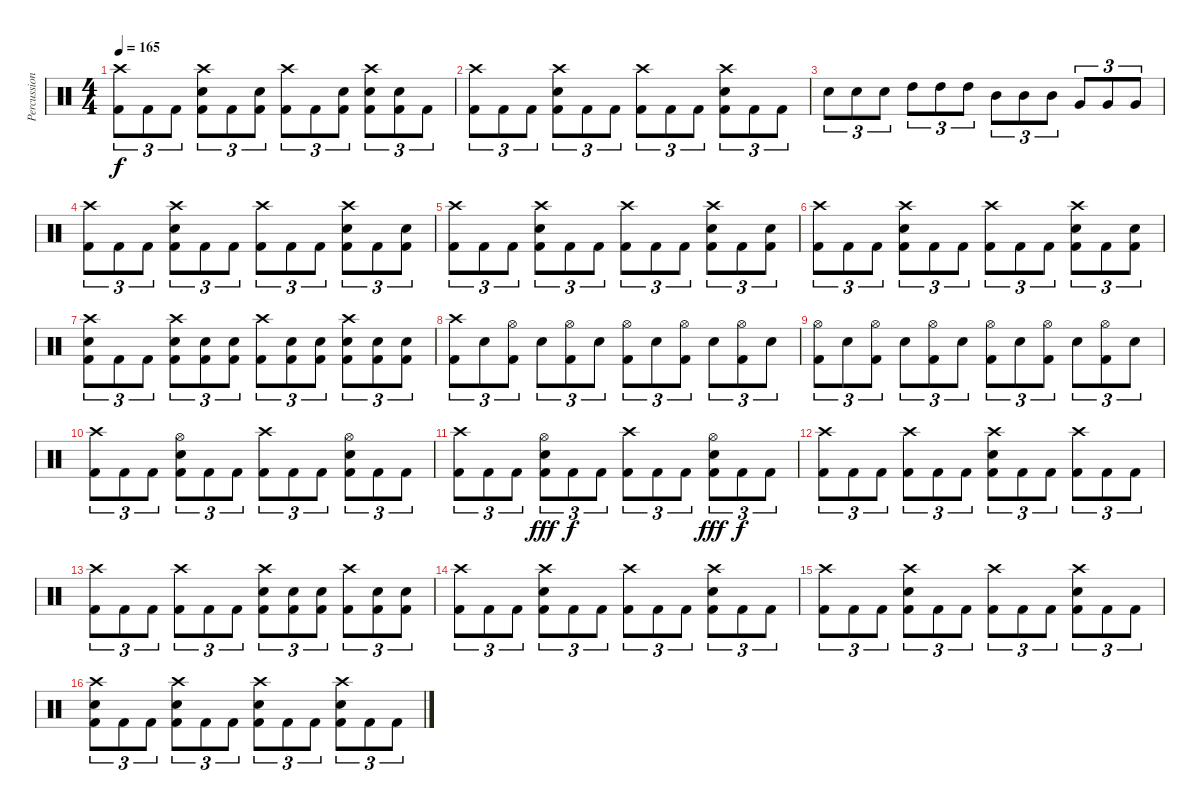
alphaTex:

\track ("Percussion" "Percussion") {instrument percussion}
\staff {score}
\articulation defaults
\ts (4 4)
\tempo 165
\clef neutral
\ks c
("Crash high (hit)" "Kick (hit) 2").8{tu (3 2) dy f} "Kick (hit) 2".8{tu (3 2)} "Kick (hit) 2".8{tu (3 2)} ("Crash high (hit)" "Electric Snare (hit)" "Kick (hit) 2").8{tu (3 2)} "Kick (hit) 2".8{tu (3 2)} ("Electric Snare (hit)" "Kick (hit) 2").8{tu (3 2)} ("Crash high (hit)" "Kick (hit) 2").8{tu (3 2)} "Kick (hit) 2".8{tu (3 2)} ("Electric Snare (hit)" "Kick (hit) 2").8{tu (3 2)} ("Crash high (hit)" "Electric Snare (hit)" "Kick (hit) 2").8{tu (3 2)} ("Electric Snare (hit)" "Kick (hit) 2").8{tu (3 2)} "Kick (hit) 2".8{tu (3 2)} |
("Crash high (hit)" "Kick (hit) 2").8{tu (3 2)} "Kick (hit) 2".8{tu (3 2)} "Kick (hit) 2".8{tu (3 2)} ("Crash high (hit)" "Electric Snare (hit)" "Kick (hit) 2").8{tu (3 2)} "Kick (hit) 2".8{tu (3 2)} "Kick (hit) 2".8{tu (3 2)} ("Crash high (hit)" "Kick (hit) 2").8{tu (3 2)} "Kick (hit) 2".8{tu (3 2)} "Kick (hit) 2".8{tu (3 2)} ("Crash high (hit)" "Electric Snare (hit)" "Kick (hit) 2").8{tu (3 2)} "Kick (hit) 2".8{tu (3 2)} "Kick (hit) 2".8{tu (3 2)} |
"Electric Snare (hit)".8{tu (3 2)} "Electric Snare (hit)".8{tu (3 2)} "Electric Snare (hit)".8{tu (3 2)} "High Tom (hit)".8{tu (3 2)} "High Tom (hit)".8{tu (3 2)} "High Tom (hit)".8{tu (3 2)} "Mid Tom (hit)".8{tu (3 2)} "Mid Tom (hit)".8{tu (3 2)} "Mid Tom (hit)".8{tu (3 2)} "Very Low Tom (hit)".8{tu (3 2)} "Very Low Tom (hit)".8{tu (3 2)} "Very Low Tom (hit)".8{tu (3 2)} |
("Crash high (hit)" "Kick (hit) 2").8{tu (3 2)} "Kick (hit) 2".8{tu (3 2)} "Kick (hit) 2".8{tu (3 2)} ("Crash high (hit)" "Electric Snare (hit)" "Kick (hit) 2").8{tu (3 2)} "Kick (hit) 2".8{tu (3 2)} "Kick (hit) 2".8{tu (3 2)} ("Crash high (hit)" "Kick (hit) 2").8{tu (3 2)} "Kick (hit) 2".8{tu (3 2)} "Kick (hit) 2".8{tu (3 2)} ("Crash high (hit)" "Electric Snare (hit)" "Kick (hit) 2").8{tu (3 2)} "Kick (hit) 2".8{tu (3 2)} ("Electric Snare (hit)" "Kick (hit) 2").8{tu (3 2)} |
("Crash high (hit)" "Kick (hit) 2").8{tu (3 2)} "Kick (hit) 2".8{tu (3 2)} "Kick (hit) 2".8{tu (3 2)} ("Crash high (hit)" "Electric Snare (hit)" "Kick (hit) 2").8{tu (3 2)} "Kick (hit) 2".8{tu (3 2)} "Kick (hit) 2".8{tu (3 2)} ("Crash high (hit)" "Kick (hit) 2").8{tu (3 2)} "Kick (hit) 2".8{tu (3 2)} "Kick (hit) 2".8{tu (3 2)} ("Crash high (hit)" "Electric Snare (hit)" "Kick (hit) 2").8{tu (3 2)} "Kick (hit) 2".8{tu (3 2)} ("Electric Snare (hit)" "Kick (hit) 2").8{tu (3 2)} |
("Crash high (hit)" "Kick (hit) 2").8{tu (3 2)} "Kick (hit) 2".8{tu (3 2)} "Kick (hit) 2".8{tu (3 2)} ("Crash high (hit)" "Electric Snare (hit)" "Kick (hit) 2").8{tu (3 2)} "Kick (hit) 2".8{tu (3 2)} "Kick (hit) 2".8{tu (3 2)} ("Crash high (hit)" "Kick (hit) 2").8{tu (3 2)} "Kick (hit) 2".8{tu (3 2)} "Kick (hit) 2".8{tu (3 2)} ("Crash high (hit)" "Electric Snare (hit)" "Kick (hit) 2").8{tu (3 2)} "Kick (hit) 2".8{tu (3 2)} ("Electric Snare (hit)" "Kick (hit) 2").8{tu (3 2)} |
("Crash high (hit)" "Electric Snare (hit)" "Kick (hit) 2").8{tu (3 2)} "Kick (hit) 2".8{tu (3 2)} "Kick (hit) 2".8{tu (3 2)} ("Crash high (hit)" "Electric Snare (hit)" "Kick (hit) 2").8{tu (3 2)} ("Electric Snare (hit)" "Kick (hit) 2").8{tu (3 2)} ("Electric Snare (hit)" "Kick (hit) 2").8{tu (3 2)} ("Crash high (hit)" "Kick (hit) 2").8{tu (3 2)} ("Electric Snare (hit)" "Kick (hit) 2").8{tu (3 2)} ("Electric Snare (hit)" "Kick (hit) 2").8{tu (3 2)} ("Crash high (hit)" "Electric Snare (hit)" "Kick (hit) 2").8{tu (3 2)} ("Electric Snare (hit)" "Kick (hit) 2").8{tu (3 2)} ("Electric Snare (hit)" "Kick (hit) 2").8{tu (3 2)} |
("Crash high (hit)" "Kick (hit) 2").8{tu (3 2)} "Electric Snare (hit)".8{tu (3 2)} ("Hi-Hat (open)" "Kick (hit) 2").8{tu (3 2)} "Electric Snare (hit)".8{tu (3 2)} ("Hi-Hat (open)" "Kick (hit) 2").8{tu (3 2)} "Electric Snare (hit)".8{tu (3 2)} ("Hi-Hat (open)" "Kick (hit) 2").8{tu (3 2)} "Electric Snare (hit)".8{tu (3 2)} ("Hi-Hat (open)" "Kick (hit) 2").8{tu (3 2)} "Electric Snare (hit)".8{tu (3 2)} ("Hi-Hat (open)" "Kick (hit) 2").8{tu (3 2)} "Electric Snare (hit)".8{tu (3 2)} |
("Hi-Hat (open)" "Kick (hit) 2").8{tu (3 2)} "Electric Snare (hit)".8{tu (3 2)} ("Hi-Hat (open)" "Kick (hit) 2").8{tu (3 2)} "Electric Snare (hit)".8{tu (3 2)} ("Hi-Hat (open)" "Kick (hit) 2").8{tu (3 2)} "Electric Snare (hit)".8{tu (3 2)} ("Hi-Hat (open)" "Kick (hit) 2").8{tu (3 2)} "Electric Snare (hit)".8{tu (3 2)} ("Hi-Hat (open)" "Kick (hit) 2").8{tu (3 2)} "Electric Snare (hit)".8{tu (3 2)} ("Hi-Hat (open)" "Kick (hit) 2").8{tu (3 2)} "Electric Snare (hit)".8{tu (3 2)} |
("Crash high (hit)" "Kick (hit) 2").8{tu (3 2)} "Kick (hit) 2".8{tu (3 2)} "Kick (hit) 2".8{tu (3 2)} ("Hi-Hat (open)" "Electric Snare (hit)" "Kick (hit) 2").8{tu (3 2)} "Kick (hit) 2".8{tu (3 2)} "Kick (hit) 2".8{tu (3 2)} ("Crash high (hit)" "Kick (hit) 2").8{tu (3 2)} "Kick (hit) 2".8{tu (3 2)} "Kick (hit) 2".8{tu (3 2)} ("Hi-Hat (open)" "Electric Snare (hit)" "Kick (hit) 2").8{tu (3 2)} "Kick (hit) 2".8{tu (3 2)} "Kick (hit) 2".8{tu (3 2)} |
("Crash high (hit)" "Kick (hit) 2").8{tu (3 2)} "Kick (hit) 2".8{tu (3 2)} "Kick (hit) 2".8{tu (3 2)} ("Hi-Hat (open)" "Electric Snare (hit)" "Kick (hit) 2").8{tu (3 2) dy fff} "Kick (hit) 2".8{tu (3 2) dy f} "Kick (hit) 2".8{tu (3 2)} ("Crash high (hit)" "Kick (hit) 2").8{tu (3 2)} "Kick (hit) 2".8{tu (3 2)} "Kick (hit) 2".8{tu (3 2)} ("Hi-Hat (open)" "Electric Snare (hit)" "Kick (hit) 2").8{tu (3 2) dy fff} "Kick (hit) 2".8{tu (3 2) dy f} "Kick (hit) 2".8{tu (3 2)} |
("Crash high (hit)" "Kick (hit) 2").8{tu (3 2)} "Kick (hit) 2".8{tu (3 2)} "Kick (hit) 2".8{tu (3 2)} ("Crash high (hit)" "Kick (hit) 2").8{tu (3 2)} "Kick (hit) 2".8{tu (3 2)} "Kick (hit) 2".8{tu (3 2)} ("Crash high (hit)" "Electric Snare (hit)" "Kick (hit) 2").8{tu (3 2)} "Kick (hit) 2".8{tu (3 2)} "Kick (hit) 2".8{tu (3 2)} ("Crash high (hit)" "Kick (hit) 2").8{tu (3 2)} "Kick (hit) 2".8{tu (3 2)} "Kick (hit) 2".8{tu (3 2)} |
("Crash high (hit)" "Kick (hit) 2").8{tu (3 2)} "Kick (hit) 2".8{tu (3 2)} "Kick (hit) 2".8{tu (3 2)} ("Crash high (hit)" "Kick (hit) 2").8{tu (3 2)} "Kick (hit) 2".8{tu (3 2)} "Kick (hit) 2".8{tu (3 2)} ("Crash high (hit)" "Electric Snare (hit)" "Kick (hit) 2").8{tu (3 2)} ("Electric Snare (hit)" "Kick (hit) 2").8{tu (3 2)} ("Electric Snare (hit)" "Kick (hit) 2").8{tu (3 2)} ("Crash high (hit)" "Kick (hit) 2").8{tu (3 2)} ("Electric Snare (hit)" "Kick (hit) 2").8{tu (3 2)} ("Electric Snare (hit)" "Kick (hit) 2").8{tu (3 2)} |
("Crash high (hit)" "Kick (hit) 2").8{tu (3 2)} "Kick (hit) 2".8{tu (3 2)} "Kick (hit) 2".8{tu (3 2)} ("Crash high (hit)" "Electric Snare (hit)" "Kick (hit) 2").8{tu (3 2)} "Kick (hit) 2".8{tu (3 2)} "Kick (hit) 2".8{tu (3 2)} ("Crash high (hit)" "Kick (hit) 2").8{tu (3 2)} "Kick (hit) 2".8{tu (3 2)} "Kick (hit) 2".8{tu (3 2)} ("Crash high (hit)" "Electric Snare (hit)" "Kick (hit) 2").8{tu (3 2)} "Kick (hit) 2".8{tu (3 2)} "Kick (hit) 2".8{tu (3 2)} |
("Crash high (hit)" "Kick (hit) 2").8{tu (3 2)} "Kick (hit) 2".8{tu (3 2)} "Kick (hit) 2".8{tu (3 2)} ("Crash high (hit)" "Electric Snare (hit)" "Kick (hit) 2").8{tu (3 2)} "Kick (hit) 2".8{tu (3 2)} "Kick (hit) 2".8{tu (3 2)} ("Crash high (hit)" "Kick (hit) 2").8{tu (3 2)} "Kick (hit) 2".8{tu (3 2)} "Kick (hit) 2".8{tu (3 2)} ("Crash high (hit)" "Electric Snare (hit)" "Kick (hit) 2").8{tu (3 2)} "Kick (hit) 2".8{tu (3 2)} "Kick (hit) 2".8{tu (3 2)} |
("Crash high (hit)" "Electric Snare (hit)" "Kick (hit) 2").8{tu (3 2)} "Kick (hit) 2".8{tu (3 2)} "Kick (hit) 2".8{tu (3 2)} ("Crash high (hit)" "Electric Snare (hit)" "Kick (hit) 2").8{tu (3 2)} "Kick (hit) 2".8{tu (3 2)} "Kick (hit) 2".8{tu (3 2)} ("Crash high (hit)" "Electric Snare (hit)" "Kick (hit) 2").8{tu (3 2)} "Kick (hit) 2".8{tu (3 2)} "Kick (hit) 2".8{tu (3 2)} ("Crash high (hit)" "Electric Snare (hit)" "Kick (hit) 2").8{tu (3 2)} "Kick (hit) 2".8{tu (3 2)} "Kick (hit) 2".8{tu (3 2)}
